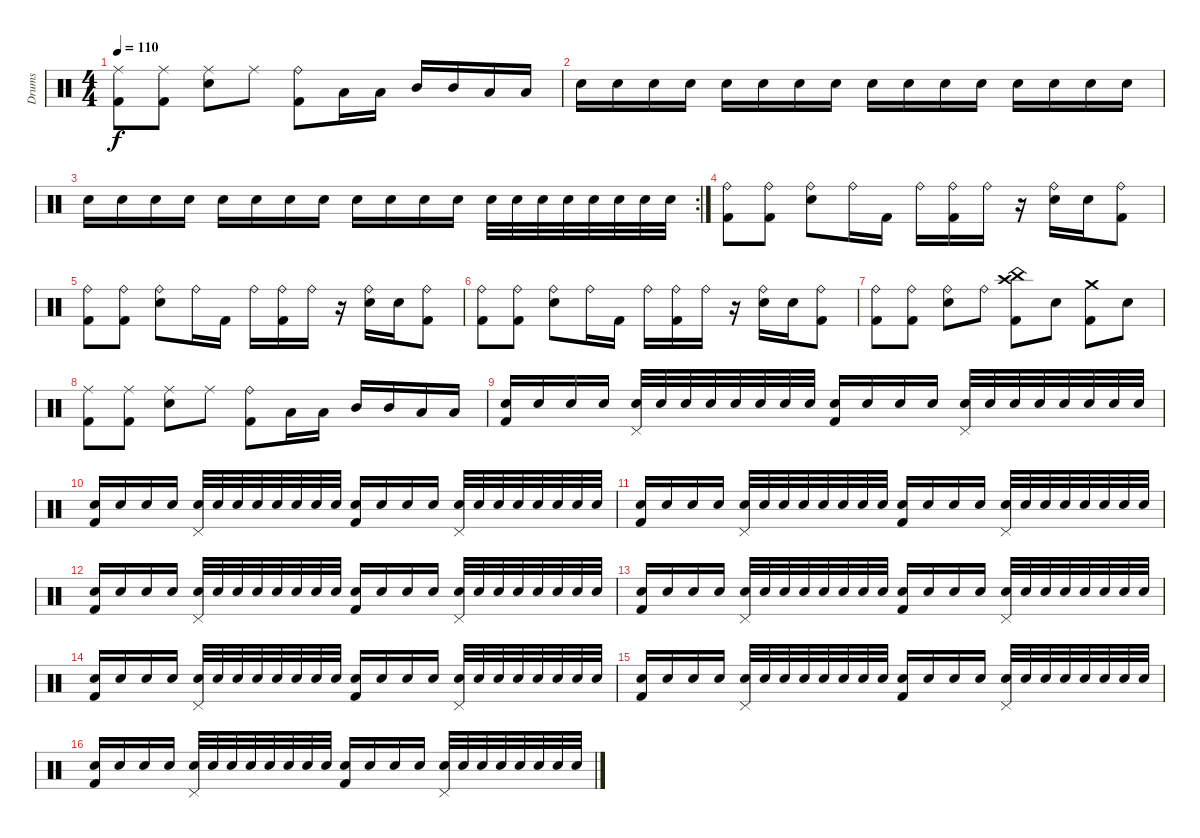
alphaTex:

\track ("Drums" "Drums") {instrument percussion}
\staff {score}
\articulation defaults
\ts (4 4)
\tempo 110
\clef neutral
\ks c
("Ride (middle)" "Kick (hit) 2").8{dy f} ("Ride (middle)" "Kick (hit) 2").8 ("Ride (middle)" "Snare (hit) 2").8 "Ride (middle)".8 ("Ride (bell)" "Kick (hit) 2").8 "Low Tom (hit)".16 "Low Tom (hit)".16 "Mid Tom (hit)".16 "Mid Tom (hit)".16 "Low Tom (hit)".16 "Low Tom (hit)".16 |
"Snare (hit) 2".16 "Snare (hit) 2".16 "Snare (hit) 2".16 "Snare (hit) 2".16 "Snare (hit) 2".16 "Snare (hit) 2".16 "Snare (hit) 2".16 "Snare (hit) 2".16 "Snare (hit) 2".16 "Snare (hit) 2".16 "Snare (hit) 2".16 "Snare (hit) 2".16 "Snare (hit) 2".16 "Snare (hit) 2".16 "Snare (hit) 2".16 "Snare (hit) 2".16 |
\rc 2 "Snare (hit) 2".16 "Snare (hit) 2".16 "Snare (hit) 2".16 "Snare (hit) 2".16 "Snare (hit) 2".16 "Snare (hit) 2".16 "Snare (hit) 2".16 "Snare (hit) 2".16 "Snare (hit) 2".16 "Snare (hit) 2".16 "Snare (hit) 2".16 "Snare (hit) 2".16 "Snare (hit) 2".32 "Snare (hit) 2".32 "Snare (hit) 2".32 "Snare (hit) 2".32 "Snare (hit) 2".32 "Snare (hit) 2".32 "Snare (hit) 2".32 "Snare (hit) 2".32
|
("Ride (bell)" "Kick (hit) 2").8 ("Ride (bell)" "Kick (hit) 2").8 ("Ride (bell)" "Snare (hit) 2").8 "Ride (bell)".16 "Kick (hit) 2".16 "Ride (bell)".16 ("Ride (bell)" "Kick (hit) 2").16 "Ride (bell)".16 r.16 ("Ride (bell)" "Snare (hit) 2").16 "Snare (hit) 2".16 ("Ride (bell)" "Kick (hit) 2").8 |
("Ride (bell)" "Kick (hit) 2").8 ("Ride (bell)" "Kick (hit) 2").8 ("Ride (bell)" "Snare (hit) 2").8 "Ride (bell)".16 "Kick (hit) 2".16 "Ride (bell)".16 ("Ride (bell)" "Kick (hit) 2").16 "Ride (bell)".16 r.16 ("Ride (bell)" "Snare (hit) 2").16 "Snare (hit) 2".16 ("Ride (bell)" "Kick (hit) 2").8 |
("Ride (bell)" "Kick (hit) 2").8 ("Ride (bell)" "Kick (hit) 2").8 ("Ride (bell)" "Snare (hit) 2").8 "Ride (bell)".16 "Kick (hit) 2".16 "Ride (bell)".16 ("Ride (bell)" "Kick (hit) 2").16 "Ride (bell)".16 r.16 ("Ride (bell)" "Snare (hit) 2").16 "Snare (hit) 2".16 ("Ride (bell)" "Kick (hit) 2").8 |
("Ride (bell)" "Kick (hit) 2").8 ("Ride (bell)" "Kick (hit) 2").8 ("Ride (bell)" "Snare (hit) 2").8 "Ride (bell)".8 ("China (hit)" "Crash high (hit)" "Kick (hit) 2").8 "Snare (hit) 2".8 ("Crash medium (hit)" "Kick (hit) 2").8 "Snare (hit) 2".8 |
("Ride (middle)" "Kick (hit) 2").8 ("Ride (middle)" "Kick (hit) 2").8 ("Ride (middle)" "Snare (hit) 2").8 "Ride (middle)".8 ("Ride (bell)" "Kick (hit) 2").8 "Low Tom (hit)".16 "Low Tom (hit)".16 "Mid Tom (hit)".16 "Mid Tom (hit)".16 "Low Tom (hit)".16 "Low Tom (hit)".16 |
("Snare (hit) 2" "Kick (hit) 2").16 "Snare (hit) 2".16 "Snare (hit) 2".16 "Snare (hit) 2".16 ("Snare (hit) 2" "Pedal Hi-Hat (hit)").32 "Snare (hit) 2".32 "Snare (hit) 2".32 "Snare (hit) 2".32 "Snare (hit) 2".32 "Snare (hit) 2".32 "Snare (hit) 2".32 "Snare (hit) 2".32 ("Snare (hit) 2" "Kick (hit) 2").16 "Snare (hit) 2".16 "Snare (hit) 2".16 "Snare (hit) 2".16 ("Snare (hit) 2" "Pedal Hi-Hat (hit)").32 "Snare (hit) 2".32 "Snare (hit) 2".32 "Snare (hit) 2".32 "Snare (hit) 2".32 "Snare (hit) 2".32 "Snare (hit) 2".32 "Snare (hit) 2".32 |
("Snare (hit) 2" "Kick (hit) 2").16 "Snare (hit) 2".16 "Snare (hit) 2".16 "Snare (hit) 2".16 ("Snare (hit) 2" "Pedal Hi-Hat (hit)").32 "Snare (hit) 2".32 "Snare (hit) 2".32 "Snare (hit) 2".32 "Snare (hit) 2".32 "Snare (hit) 2".32 "Snare (hit) 2".32 "Snare (hit) 2".32 ("Snare (hit) 2" "Kick (hit) 2").16 "Snare (hit) 2".16 "Snare (hit) 2".16 "Snare (hit) 2".16 ("Snare (hit) 2" "Pedal Hi-Hat (hit)").32 "Snare (hit) 2".32 "Snare (hit) 2".32 "Snare (hit) 2".32 "Snare (hit) 2".32 "Snare (hit) 2".32 "Snare (hit) 2".32 "Snare (hit) 2".32 |
("Snare (hit) 2" "Kick (hit) 2").16 "Snare (hit) 2".16 "Snare (hit) 2".16 "Snare (hit) 2".16 ("Snare (hit) 2" "Pedal Hi-Hat (hit)").32 "Snare (hit) 2".32 "Snare (hit) 2".32 "Snare (hit) 2".32 "Snare (hit) 2".32 "Snare (hit) 2".32 "Snare (hit) 2".32 "Snare (hit) 2".32 ("Snare (hit) 2" "Kick (hit) 2").16 "Snare (hit) 2".16 "Snare (hit) 2".16 "Snare (hit) 2".16 ("Snare (hit) 2" "Pedal Hi-Hat (hit)").32 "Snare (hit) 2".32 "Snare (hit) 2".32 "Snare (hit) 2".32 "Snare (hit) 2".32 "Snare (hit) 2".32 "Snare (hit) 2".32 "Snare (hit) 2".32 |
("Snare (hit) 2" "Kick (hit) 2").16 "Snare (hit) 2".16 "Snare (hit) 2".16 "Snare (hit) 2".16 ("Snare (hit) 2" "Pedal Hi-Hat (hit)").32 "Snare (hit) 2".32 "Snare (hit) 2".32 "Snare (hit) 2".32 "Snare (hit) 2".32 "Snare (hit) 2".32 "Snare (hit) 2".32 "Snare (hit) 2".32 ("Snare (hit) 2" "Kick (hit) 2").16 "Snare (hit) 2".16 "Snare (hit) 2".16 "Snare (hit) 2".16 ("Snare (hit) 2" "Pedal Hi-Hat (hit)").32 "Snare (hit) 2".32 "Snare (hit) 2".32 "Snare (hit) 2".32 "Snare (hit) 2".32 "Snare (hit) 2".32 "Snare (hit) 2".32 "Snare (hit) 2".32 |
("Snare (hit) 2" "Kick (hit) 2").16 "Snare (hit) 2".16 "Snare (hit) 2".16 "Snare (hit) 2".16 ("Snare (hit) 2" "Pedal Hi-Hat (hit)").32 "Snare (hit) 2".32 "Snare (hit) 2".32 "Snare (hit) 2".32 "Snare (hit) 2".32 "Snare (hit) 2".32 "Snare (hit) 2".32 "Snare (hit) 2".32 ("Snare (hit) 2" "Kick (hit) 2").16 "Snare (hit) 2".16 "Snare (hit) 2".16 "Snare (hit) 2".16 ("Snare (hit) 2" "Pedal Hi-Hat (hit)").32 "Snare (hit) 2".32 "Snare (hit) 2".32 "Snare (hit) 2".32 "Snare (hit) 2".32 "Snare (hit) 2".32 "Snare (hit) 2".32 "Snare (hit) 2".32 |
("Snare (hit) 2" "Kick (hit) 2").16 "Snare (hit) 2".16 "Snare (hit) 2".16 "Snare (hit) 2".16 ("Snare (hit) 2" "Pedal Hi-Hat (hit)").32 "Snare (hit) 2".32 "Snare (hit) 2".32 "Snare (hit) 2".32 "Snare (hit) 2".32 "Snare (hit) 2".32 "Snare (hit) 2".32 "Snare (hit) 2".32 ("Snare (hit) 2" "Kick (hit) 2").16 "Snare (hit) 2".16 "Snare (hit) 2".16 "Snare (hit) 2".16 ("Snare (hit) 2" "Pedal Hi-Hat (hit)").32 "Snare (hit) 2".32 "Snare (hit) 2".32 "Snare (hit) 2".32 "Snare (hit) 2".32 "Snare (hit) 2".32 "Snare (hit) 2".32 "Snare (hit) 2".32 |
("Snare (hit) 2" "Kick (hit) 2").16 "Snare (hit) 2".16 "Snare (hit) 2".16 "Snare (hit) 2".16 ("Snare (hit) 2" "Pedal Hi-Hat (hit)").32 "Snare (hit) 2".32 "Snare (hit) 2".32 "Snare (hit) 2".32 "Snare (hit) 2".32 "Snare (hit) 2".32 "Snare (hit) 2".32 "Snare (hit) 2".32 ("Snare (hit) 2" "Kick (hit) 2").16 "Snare (hit) 2".16 "Snare (hit) 2".16 "Snare (hit) 2".16 ("Snare (hit) 2" "Pedal Hi-Hat (hit)").32 "Snare (hit) 2".32 "Snare (hit) 2".32 "Snare (hit) 2".32 "Snare (hit) 2".32 "Snare (hit) 2".32 "Snare (hit) 2".32 "Snare (hit) 2".32 |
("Snare (hit) 2" "Kick (hit) 2").16 "Snare (hit) 2".16 "Snare (hit) 2".16 "Snare (hit) 2".16 ("Snare (hit) 2" "Pedal Hi-Hat (hit)").32 "Snare (hit) 2".32 "Snare (hit) 2".32 "Snare (hit) 2".32 "Snare (hit) 2".32 "Snare (hit) 2".32 "Snare (hit) 2".32 "Snare (hit) 2".32 ("Snare (hit) 2" "Kick (hit) 2").16 "Snare (hit) 2".16 "Snare (hit) 2".16 "Snare (hit) 2".16 ("Snare (hit) 2" "Pedal Hi-Hat (hit)").32 "Snare (hit) 2".32 "Snare (hit) 2".32 "Snare (hit) 2".32 "Snare (hit) 2".32 "Snare (hit) 2".32 "Snare (hit) 2".32 "Snare (hit) 2".32
